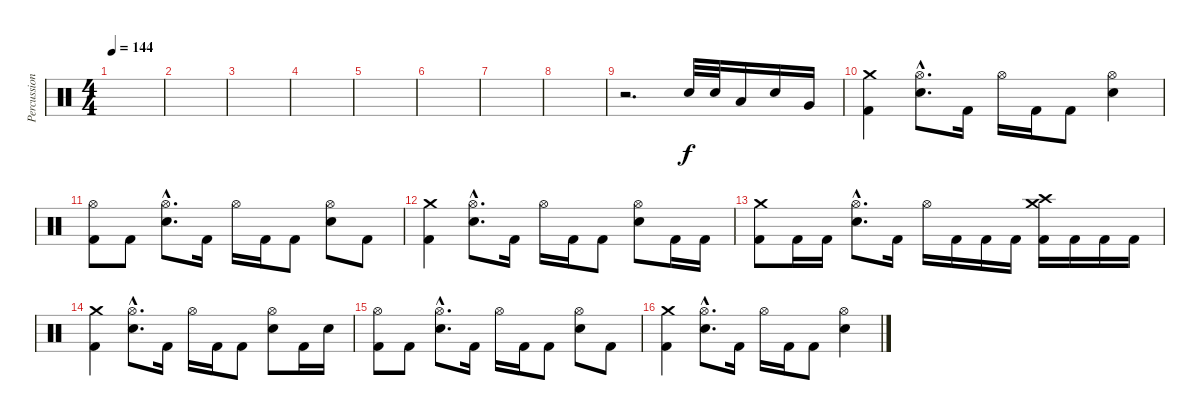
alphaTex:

\track ("Percussion" "Percussion") {instrument percussion}
\staff {score}
\articulation defaults
\ts (4 4)
\tempo 144
\clef neutral
\ks c
|
|
|
|
|
|
|
|
r.2{d} "Electric Snare (hit)".32 "Electric Snare (hit)".32 "Low Tom (hit)".16 "Electric Snare (hit)".16 "Very Low Tom (hit)".16 |
("Crash medium (hit)" "Kick (hit) 2").4 ("Hi-Hat (open)"{hac} "Electric Snare (hit)"{hac}).8{d} "Kick (hit) 2".16 "Hi-Hat (open)".16 "Kick (hit) 2".16 "Kick (hit) 2".8 ("Hi-Hat (open)" "Electric Snare (hit)").4 |
("Hi-Hat (open)" "Kick (hit) 2").8 "Kick (hit) 2".8 ("Hi-Hat (open)"{hac} "Electric Snare (hit)"{hac}).8{d} "Kick (hit) 2".16 "Hi-Hat (open)".16 "Kick (hit) 2".16 "Kick (hit) 2".8 ("Hi-Hat (open)" "Electric Snare (hit)").8 "Kick (hit) 2".8 |
("Crash medium (hit)" "Kick (hit) 2").4 ("Hi-Hat (open)"{hac} "Electric Snare (hit)"{hac}).8{d} "Kick (hit) 2".16 "Hi-Hat (open)".16 "Kick (hit) 2".16 "Kick (hit) 2".8 ("Hi-Hat (open)" "Electric Snare (hit)").8 "Kick (hit) 2".16 "Kick (hit) 2".16 |
("Crash medium (hit)" "Kick (hit) 2").8 "Kick (hit) 2".16 "Kick (hit) 2".16 ("Hi-Hat (open)"{hac} "Electric Snare (hit)"{hac}).8{d} "Kick (hit) 2".16 "Hi-Hat (open)".16 "Kick (hit) 2".16 "Kick (hit) 2".16 "Kick (hit) 2".16 ("Crash high (hit)" "Crash medium (hit)" "Kick (hit) 2").16 "Kick (hit) 2".16 "Kick (hit) 2".16 "Kick (hit) 2".16 |
("Crash medium (hit)" "Kick (hit) 2").4 ("Hi-Hat (open)"{hac} "Electric Snare (hit)"{hac}).8{d} "Kick (hit) 2".16 "Hi-Hat (open)".16 "Kick (hit) 2".16 "Kick (hit) 2".8 ("Hi-Hat (open)" "Electric Snare (hit)").8 "Kick (hit) 2".16 "Electric Snare (hit)".16 |
("Hi-Hat (open)" "Kick (hit) 2").8 "Kick (hit) 2".8 ("Hi-Hat (open)"{hac} "Electric Snare (hit)"{hac}).8{d} "Kick (hit) 2".16 "Hi-Hat (open)".16 "Kick (hit) 2".16 "Kick (hit) 2".8 ("Hi-Hat (open)" "Electric Snare (hit)").8 "Kick (hit) 2".8 |
("Crash medium (hit)" "Kick (hit) 2").4 ("Hi-Hat (open)"{hac} "Electric Snare (hit)"{hac}).8{d} "Kick (hit) 2".16 "Hi-Hat (open)".16 "Kick (hit) 2".16 "Kick (hit) 2".8 ("Hi-Hat (open)" "Electric Snare (hit)").4
